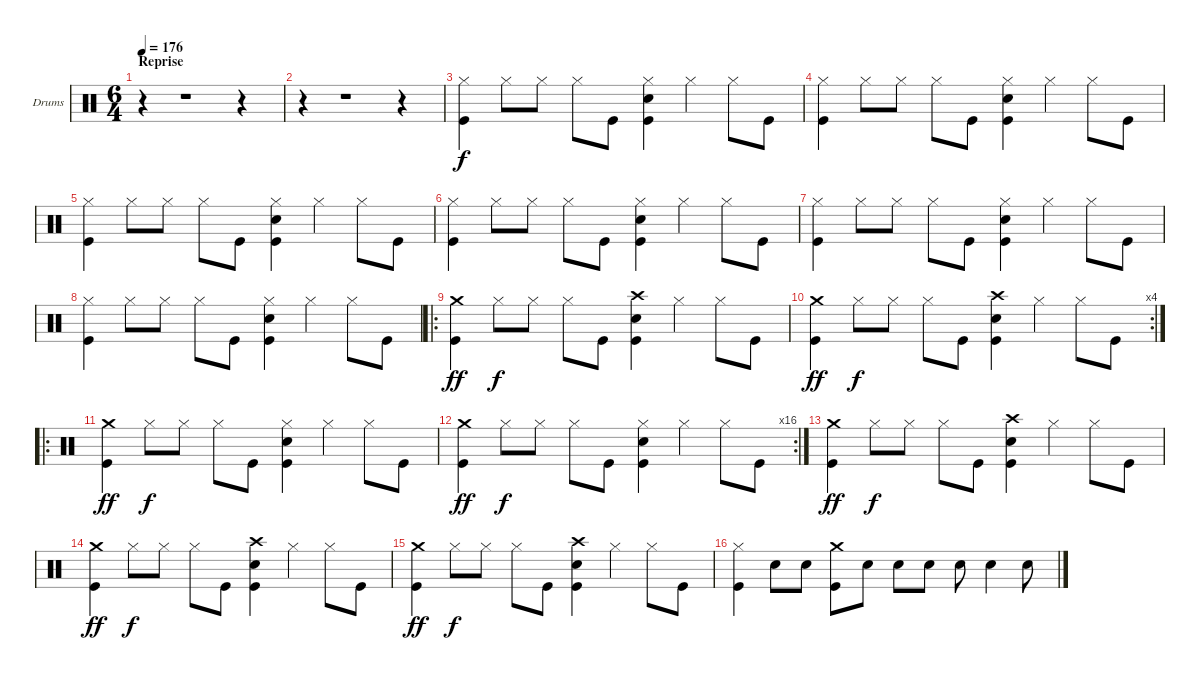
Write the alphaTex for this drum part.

\bracketExtendMode groupsimilarinstruments
\firstSystemTrackNameOrientation horizontal
\otherSystemsTrackNameOrientation horizontal
\track ("Drumkit" "Drums") {instrument percussion}
\staff {score}
\articulation defaults
\ts (6 4)
\section ("" "Reprise")
\tempo 176
\clef neutral
\ks c
r.4{dy f} r.1 r.4 |
r.4 r.1 r.4 |
("Hi-Hat (closed)" "Kick (hit)").4 "Hi-Hat (closed)".8 "Hi-Hat (closed)".8 "Hi-Hat (closed)".8 "Kick (hit)".8 ("Hi-Hat (closed)" "Snare (hit) 2" "Kick (hit)").4 "Hi-Hat (closed)".4 "Hi-Hat (closed)".8 "Kick (hit)".8 |
("Hi-Hat (closed)" "Kick (hit)").4 "Hi-Hat (closed)".8 "Hi-Hat (closed)".8 "Hi-Hat (closed)".8 "Kick (hit)".8 ("Hi-Hat (closed)" "Snare (hit) 2" "Kick (hit)").4 "Hi-Hat (closed)".4 "Hi-Hat (closed)".8 "Kick (hit)".8 |
("Hi-Hat (closed)" "Kick (hit)").4 "Hi-Hat (closed)".8 "Hi-Hat (closed)".8 "Hi-Hat (closed)".8 "Kick (hit)".8 ("Hi-Hat (closed)" "Snare (hit) 2" "Kick (hit)").4 "Hi-Hat (closed)".4 "Hi-Hat (closed)".8 "Kick (hit)".8 |
("Hi-Hat (closed)" "Kick (hit)").4 "Hi-Hat (closed)".8 "Hi-Hat (closed)".8 "Hi-Hat (closed)".8 "Kick (hit)".8 ("Hi-Hat (closed)" "Snare (hit) 2" "Kick (hit)").4 "Hi-Hat (closed)".4 "Hi-Hat (closed)".8 "Kick (hit)".8 |
("Hi-Hat (closed)" "Kick (hit)").4 "Hi-Hat (closed)".8 "Hi-Hat (closed)".8 "Hi-Hat (closed)".8 "Kick (hit)".8 ("Hi-Hat (closed)" "Snare (hit) 2" "Kick (hit)").4 "Hi-Hat (closed)".4 "Hi-Hat (closed)".8 "Kick (hit)".8 |
("Hi-Hat (closed)" "Kick (hit)").4 "Hi-Hat (closed)".8 "Hi-Hat (closed)".8 "Hi-Hat (closed)".8 "Kick (hit)".8 ("Hi-Hat (closed)" "Snare (hit) 2" "Kick (hit)").4 "Hi-Hat (closed)".4 "Hi-Hat (closed)".8 "Kick (hit)".8 |
\ro
("Crash medium (hit)" "Kick (hit)").4{dy ff} "Hi-Hat (closed)".8{dy f} "Hi-Hat (closed)".8 "Hi-Hat (closed)".8 "Kick (hit)".8 ("Crash high (hit)" "Snare (hit) 2" "Kick (hit)").4 "Hi-Hat (closed)".4 "Hi-Hat (closed)".8 "Kick (hit)".8 |
\rc 4
("Crash medium (hit)" "Kick (hit)").4{dy ff} "Hi-Hat (closed)".8{dy f} "Hi-Hat (closed)".8 "Hi-Hat (closed)".8 "Kick (hit)".8 ("Crash high (hit)" "Snare (hit) 2" "Kick (hit)").4 "Hi-Hat (closed)".4 "Hi-Hat (closed)".8 "Kick (hit)".8 |
\ro
("Crash medium (hit)" "Kick (hit)").4{dy ff} "Hi-Hat (closed)".8{dy f} "Hi-Hat (closed)".8 "Hi-Hat (closed)".8 "Kick (hit)".8 ("Hi-Hat (closed)" "Snare (hit) 2" "Kick (hit)").4 "Hi-Hat (closed)".4 "Hi-Hat (closed)".8 "Kick (hit)".8 |
\rc 16
("Crash medium (hit)" "Kick (hit)").4{dy ff} "Hi-Hat (closed)".8{dy f} "Hi-Hat (closed)".8 "Hi-Hat (closed)".8 "Kick (hit)".8 ("Hi-Hat (closed)" "Snare (hit) 2" "Kick (hit)").4 "Hi-Hat (closed)".4 "Hi-Hat (closed)".8 "Kick (hit)".8 |
("Crash medium (hit)" "Kick (hit)").4{dy ff} "Hi-Hat (closed)".8{dy f} "Hi-Hat (closed)".8 "Hi-Hat (closed)".8 "Kick (hit)".8 ("Crash high (hit)" "Snare (hit) 2" "Kick (hit)").4 "Hi-Hat (closed)".4 "Hi-Hat (closed)".8 "Kick (hit)".8 |
("Crash medium (hit)" "Kick (hit)").4{dy ff} "Hi-Hat (closed)".8{dy f} "Hi-Hat (closed)".8 "Hi-Hat (closed)".8 "Kick (hit)".8 ("Crash high (hit)" "Snare (hit) 2" "Kick (hit)").4 "Hi-Hat (closed)".4 "Hi-Hat (closed)".8 "Kick (hit)".8 |
("Crash medium (hit)" "Kick (hit)").4{dy ff} "Hi-Hat (closed)".8{dy f} "Hi-Hat (closed)".8 "Hi-Hat (closed)".8 "Kick (hit)".8 ("Crash high (hit)" "Snare (hit) 2" "Kick (hit)").4 "Hi-Hat (closed)".4 "Hi-Hat (closed)".8 "Kick (hit)".8 |
("Hi-Hat (closed)" "Kick (hit)").4 "Snare (hit) 2".8 "Snare (hit) 2".8 ("Crash medium (hit)" "Kick (hit)").8 "Snare (hit) 2".8 "Snare (hit) 2".8 "Snare (hit) 2".8 "Snare (hit) 2".8 "Snare (hit) 2".4 "Snare (hit) 2".8
